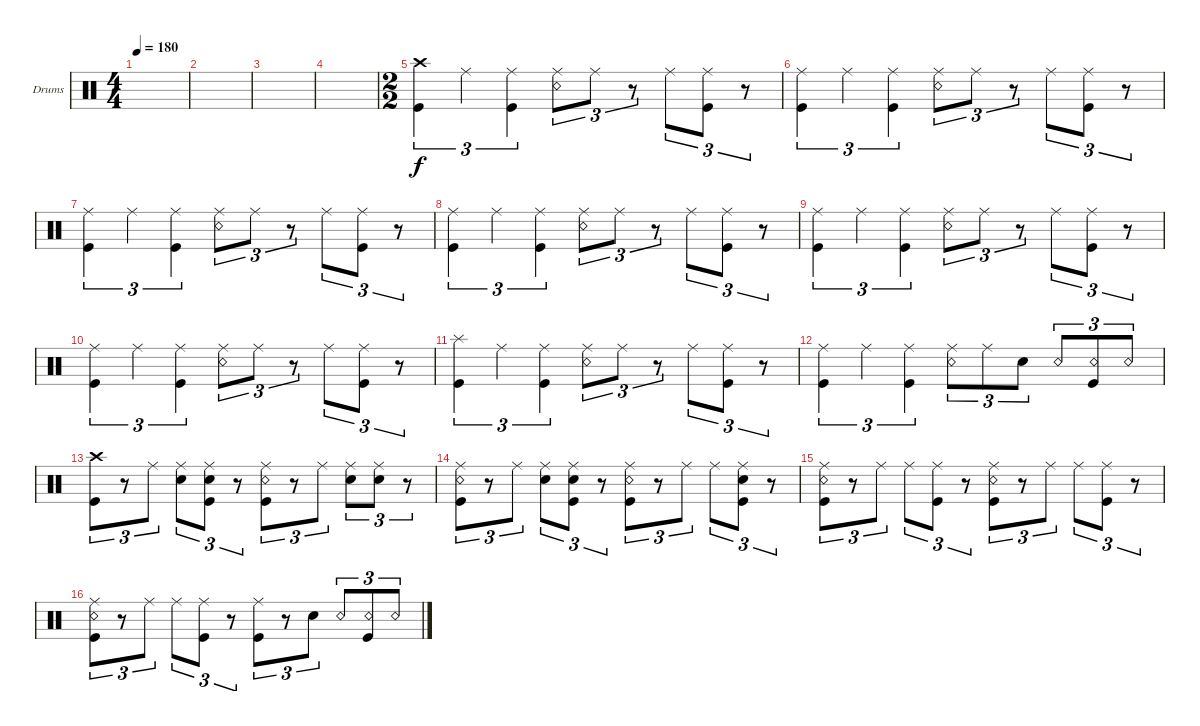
\defaultSystemsLayout 4
\bracketExtendMode groupsimilarinstruments
\firstSystemTrackNameOrientation horizontal
\otherSystemsTrackNameOrientation horizontal
\track ("Drumkit" "Drums") {instrument percussion}
\staff {score}
\articulation defaults
\ts (4 4)
\tempo 180
\clef neutral
\scale
0.333333
\ks c
|
\scale
0.333333 |
\scale
0.333333 |
\scale
0.333333 |
\ts (2 2)
("Kick (hit)" "Crash high (hit)").4{tu (3 2)} "Ride (middle)".4{tu (3 2)} ("Kick (hit)" "Ride (middle)").4{tu (3 2)} ("Snare (rim shot)" "Ride (middle)").8{tu (3 2)} "Ride (middle)".8{tu (3 2)} r.8{tu (3 2)} "Ride (middle)".8{tu (3 2)} ("Kick (hit)" "Ride (middle)").8{tu (3 2)} r.8{tu (3 2)} |
("Kick (hit)" "Ride (middle)").4{tu (3 2)} "Ride (middle)".4{tu (3 2)} ("Kick (hit)" "Ride (middle)").4{tu (3 2)} ("Snare (rim shot)" "Ride (middle)").8{tu (3 2)} "Ride (middle)".8{tu (3 2)} r.8{tu (3 2)} "Ride (middle)".8{tu (3 2)} ("Kick (hit)" "Ride (middle)").8{tu (3 2)} r.8{tu (3 2)} |
("Kick (hit)" "Ride (middle)").4{tu (3 2)} "Ride (middle)".4{tu (3 2)} ("Kick (hit)" "Ride (middle)").4{tu (3 2)} ("Snare (rim shot)" "Ride (middle)").8{tu (3 2)} "Ride (middle)".8{tu (3 2)} r.8{tu (3 2)} "Ride (middle)".8{tu (3 2)} ("Kick (hit)" "Ride (middle)").8{tu (3 2)} r.8{tu (3 2)} |
("Kick (hit)" "Ride (middle)").4{tu (3 2)} "Ride (middle)".4{tu (3 2)} ("Kick (hit)" "Ride (middle)").4{tu (3 2)} ("Snare (rim shot)" "Ride (middle)").8{tu (3 2)} "Ride (middle)".8{tu (3 2)} r.8{tu (3 2)} "Ride (middle)".8{tu (3 2)} ("Kick (hit)" "Ride (middle)").8{tu (3 2)} r.8{tu (3 2)} |
("Kick (hit)" "Ride (middle)").4{tu (3 2)} "Ride (middle)".4{tu (3 2)} ("Kick (hit)" "Ride (middle)").4{tu (3 2)} ("Snare (rim shot)" "Ride (middle)").8{tu (3 2)} "Ride (middle)".8{tu (3 2)} r.8{tu (3 2)} "Ride (middle)".8{tu (3 2)} ("Kick (hit)" "Ride (middle)").8{tu (3 2)} r.8{tu (3 2)} |
("Kick (hit)" "Ride (middle)").4{tu (3 2)} "Ride (middle)".4{tu (3 2)} ("Kick (hit)" "Ride (middle)").4{tu (3 2)} ("Snare (rim shot)" "Ride (middle)").8{tu (3 2)} "Ride (middle)".8{tu (3 2)} r.8{tu (3 2)} "Ride (middle)".8{tu (3 2)} ("Kick (hit)" "Ride (middle)").8{tu (3 2)} r.8{tu (3 2)} |
("Kick (hit)" "Splash (hit)").4{tu (3 2)} "Ride (middle)".4{tu (3 2)} ("Kick (hit)" "Ride (middle)").4{tu (3 2)} ("Snare (rim shot)" "Ride (middle)").8{tu (3 2)} "Ride (middle)".8{tu (3 2)} r.8{tu (3 2)} "Ride (middle)".8{tu (3 2)} ("Kick (hit)" "Ride (middle)").8{tu (3 2)} r.8{tu (3 2)} |
("Kick (hit)" "Ride (middle)").4{tu (3 2)} "Ride (middle)".4{tu (3 2)} ("Kick (hit)" "Ride (middle)").4{tu (3 2)} ("Snare (rim shot)" "Ride (middle)").8{tu (3 2)} "Ride (middle)".8{tu (3 2)} "Snare (hit) 2".8{tu (3 2)} "Snare (rim shot)".8{tu (3 2)} ("Kick (hit)" "Snare (rim shot)").8{tu (3 2)} "Snare (rim shot)".8{tu (3 2)} |
("Kick (hit)" "Crash high (hit)").8{tu (3 2)} r.8{tu (3 2)} "Ride (middle)".8{tu (3 2)} ("Snare (hit) 2" "Ride (middle)").8{tu (3 2)} ("Kick (hit)" "Snare (hit) 2" "Ride (middle)").8{tu (3 2)} r.8{tu (3 2)} ("Kick (hit)" "Ride (middle)" "Snare (rim shot)").8{tu (3 2)} r.8{tu (3 2)} "Ride (middle)".8{tu (3 2)} ("Snare (hit) 2" "Ride (middle)").8{tu (3 2)} ("Snare (hit) 2" "Ride (middle)").8{tu (3 2)} r.8{tu (3 2)} |
("Kick (hit)" "Ride (middle)" "Snare (rim shot)").8{tu (3 2)} r.8{tu (3 2)} "Ride (middle)".8{tu (3 2)} ("Snare (hit) 2" "Ride (middle)").8{tu (3 2)} ("Kick (hit)" "Snare (hit) 2" "Ride (middle)").8{tu (3 2)} r.8{tu (3 2)} ("Kick (hit)" "Ride (middle)" "Snare (rim shot)").8{tu (3 2)} r.8{tu (3 2)} "Ride (middle)".8{tu (3 2)} "Ride (middle)".8{tu (3 2)} ("Ride (middle)" "Kick (hit)" "Snare (hit) 2").8{tu (3 2)} r.8{tu (3 2)} |
("Kick (hit)" "Ride (middle)" "Snare (rim shot)").8{tu (3 2)} r.8{tu (3 2)} "Ride (middle)".8{tu (3 2)} "Ride (middle)".8{tu (3 2)} ("Kick (hit)" "Ride (middle)").8{tu (3 2)} r.8{tu (3 2)} ("Kick (hit)" "Ride (middle)" "Snare (rim shot)").8{tu (3 2)} r.8{tu (3 2)} "Ride (middle)".8{tu (3 2)} "Ride (middle)".8{tu (3 2)} ("Kick (hit)" "Ride (middle)").8{tu (3 2)} r.8{tu (3 2)} |
("Kick (hit)" "Ride (middle)" "Snare (rim shot)").8{tu (3 2)} r.8{tu (3 2)} "Ride (middle)".8{tu (3 2)} "Ride (middle)".8{tu (3 2)} ("Kick (hit)" "Ride (middle)").8{tu (3 2)} r.8{tu (3 2)} ("Kick (hit)" "Ride (middle)").8{tu (3 2)} r.8{tu (3 2)} "Snare (hit) 2".8{tu (3 2)} "Snare (rim shot)".8{tu (3 2)} ("Kick (hit)" "Snare (rim shot)").8{tu (3 2)} "Snare (rim shot)".8{tu (3 2)}
